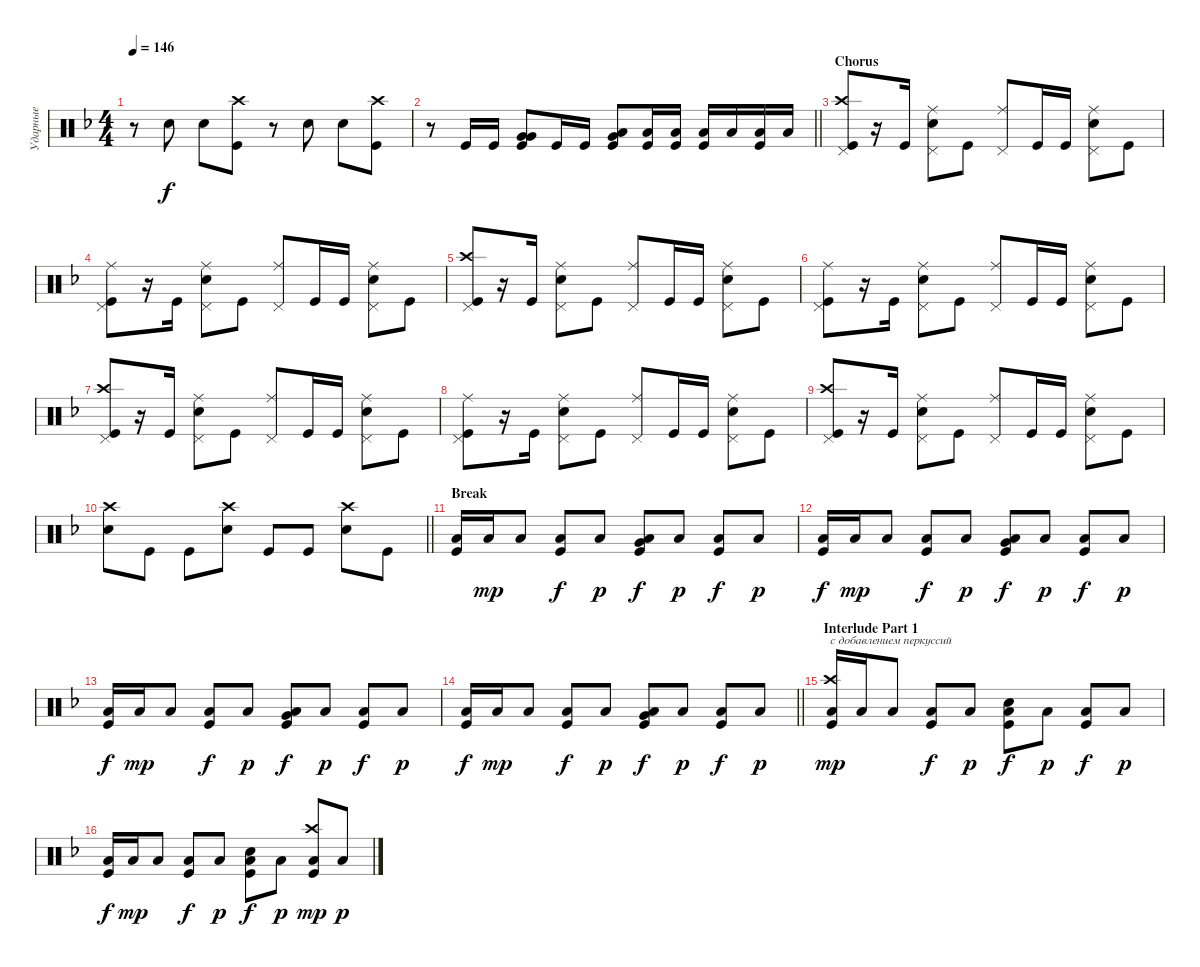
\track ("Ударные" "Ударные") {instrument percussion}
\staff {score}
\articulation defaults
\ts (4 4)
\tempo 146
\clef neutral
\ks dminor
r.8{dy f} "Snare (hit) 2".8 "Snare (hit) 2".8 ("Kick (hit)" "Crash high (hit)").8 r.8 "Snare (hit) 2".8 "Snare (hit) 2".8 ("Kick (hit)" "Crash high (hit)").8 |
\barLineRight lightlight
r.8 "Kick (hit)".16 "Kick (hit)".16 ("Kick (hit)" "Very Low Tom (hit)" "Very Low Tom (hit)").8{bd 120} "Kick (hit)".16 "Kick (hit)".16{bd 120} ("Kick (hit)" "Very Low Tom (hit)" "Low Floor Tom (hit)").8{bd 60} ("Kick (hit)" "Low Floor Tom (hit)").16 ("Kick (hit)" "Low Floor Tom (hit)").16{bd 120} ("Low Floor Tom (hit)" "Kick (hit)").16 "Low Floor Tom (hit)".16{bd 120} ("Kick (hit)" "Low Floor Tom (hit)").16{bd 120} "Low Floor Tom (hit)".16 |
\section ("" "Chorus")
("Kick (hit)" "Pedal Hi-Hat (hit)" "Crash high (hit)").8 r.16 "Kick (hit)".16 ("Ride (middle)" "Snare (hit) 2" "Pedal Hi-Hat (hit)").8 "Kick (hit)".8 ("Pedal Hi-Hat (hit)" "Ride (middle)").8 "Kick (hit)".16 "Kick (hit)".16 ("Snare (hit) 2" "Pedal Hi-Hat (hit)" "Ride (middle)").8 "Kick (hit)".8 |
("Kick (hit)" "Pedal Hi-Hat (hit)" "Ride (middle)").8 r.16 "Kick (hit)".16 ("Ride (middle)" "Snare (hit) 2" "Pedal Hi-Hat (hit)").8 "Kick (hit)".8 ("Pedal Hi-Hat (hit)" "Ride (middle)").8 "Kick (hit)".16 "Kick (hit)".16 ("Snare (hit) 2" "Pedal Hi-Hat (hit)" "Ride (middle)").8 "Kick (hit)".8 |
("Kick (hit)" "Pedal Hi-Hat (hit)" "Crash high (hit)").8 r.16 "Kick (hit)".16 ("Ride (middle)" "Snare (hit) 2" "Pedal Hi-Hat (hit)").8 "Kick (hit)".8 ("Pedal Hi-Hat (hit)" "Ride (middle)").8 "Kick (hit)".16 "Kick (hit)".16 ("Snare (hit) 2" "Pedal Hi-Hat (hit)" "Ride (middle)").8 "Kick (hit)".8 |
("Kick (hit)" "Pedal Hi-Hat (hit)" "Ride (middle)").8 r.16 "Kick (hit)".16 ("Ride (middle)" "Snare (hit) 2" "Pedal Hi-Hat (hit)").8 "Kick (hit)".8 ("Pedal Hi-Hat (hit)" "Ride (middle)").8 "Kick (hit)".16 "Kick (hit)".16 ("Snare (hit) 2" "Pedal Hi-Hat (hit)" "Ride (middle)").8 "Kick (hit)".8 |
("Kick (hit)" "Pedal Hi-Hat (hit)" "Crash high (hit)").8 r.16 "Kick (hit)".16 ("Ride (middle)" "Snare (hit) 2" "Pedal Hi-Hat (hit)").8 "Kick (hit)".8 ("Pedal Hi-Hat (hit)" "Ride (middle)").8 "Kick (hit)".16 "Kick (hit)".16 ("Snare (hit) 2" "Pedal Hi-Hat (hit)" "Ride (middle)").8 "Kick (hit)".8 |
("Kick (hit)" "Pedal Hi-Hat (hit)" "Ride (middle)").8 r.16 "Kick (hit)".16 ("Ride (middle)" "Snare (hit) 2" "Pedal Hi-Hat (hit)").8 "Kick (hit)".8 ("Pedal Hi-Hat (hit)" "Ride (middle)").8 "Kick (hit)".16 "Kick (hit)".16 ("Snare (hit) 2" "Pedal Hi-Hat (hit)" "Ride (middle)").8 "Kick (hit)".8 |
("Kick (hit)" "Pedal Hi-Hat (hit)" "Crash high (hit)").8 r.16 "Kick (hit)".16 ("Ride (middle)" "Snare (hit) 2" "Pedal Hi-Hat (hit)").8 "Kick (hit)".8 ("Pedal Hi-Hat (hit)" "Ride (middle)").8 "Kick (hit)".16 "Kick (hit)".16 ("Snare (hit) 2" "Pedal Hi-Hat (hit)" "Ride (middle)").8 "Kick (hit)".8 |
\barLineRight lightlight
("Snare (hit) 2" "Crash high (hit)").8 "Kick (hit)".8 "Kick (hit)".8 ("Snare (hit) 2" "Crash high (hit)").8 "Kick (hit)".8 "Kick (hit)".8 ("Snare (hit) 2" "Crash high (hit)").8 "Kick (hit)".8 |
\section ("" "Break")
("Kick (hit)" "Low Floor Tom (hit)").16 "Low Floor Tom (hit)".16{dy mp} "Low Floor Tom (hit)".8 ("Kick (hit)" "Low Floor Tom (hit)").8{bd 120 dy f} "Low Floor Tom (hit)".8{dy p} ("Kick (hit)" "Low Floor Tom (hit)" "Very Low Tom (hit)").8{bd 120 dy f} "Low Floor Tom (hit)".8{dy p} ("Kick (hit)" "Low Floor Tom (hit)").8{dy f} "Low Floor Tom (hit)".8{dy p} |
("Kick (hit)" "Low Floor Tom (hit)").16{dy f} "Low Floor Tom (hit)".16{dy mp} "Low Floor Tom (hit)".8 ("Kick (hit)" "Low Floor Tom (hit)").8{bd 120 dy f} "Low Floor Tom (hit)".8{dy p} ("Kick (hit)" "Low Floor Tom (hit)" "Very Low Tom (hit)").8{bd 120 dy f} "Low Floor Tom (hit)".8{dy p} ("Kick (hit)" "Low Floor Tom (hit)").8{dy f} "Low Floor Tom (hit)".8{dy p} |
("Kick (hit)" "Low Floor Tom (hit)").16{dy f} "Low Floor Tom (hit)".16{dy mp} "Low Floor Tom (hit)".8 ("Kick (hit)" "Low Floor Tom (hit)").8{bd 120 dy f} "Low Floor Tom (hit)".8{dy p} ("Kick (hit)" "Low Floor Tom (hit)" "Very Low Tom (hit)").8{bd 120 dy f} "Low Floor Tom (hit)".8{dy p} ("Kick (hit)" "Low Floor Tom (hit)").8{dy f} "Low Floor Tom (hit)".8{dy p} |
\barLineRight lightlight
("Kick (hit)" "Low Floor Tom (hit)").16{dy f} "Low Floor Tom (hit)".16{dy mp} "Low Floor Tom (hit)".8 ("Kick (hit)" "Low Floor Tom (hit)").8{bd 120 dy f} "Low Floor Tom (hit)".8{dy p} ("Kick (hit)" "Low Floor Tom (hit)" "Very Low Tom (hit)").8{bd 120 dy f} "Low Floor Tom (hit)".8{dy p} ("Kick (hit)" "Low Floor Tom (hit)").8{dy f} "Low Floor Tom (hit)".8{dy p} |
\section ("" "Interlude Part 1")
("Kick (hit)" "Low Floor Tom (hit)" "Crash high (hit)").16{txt "с добавлением перкуссий" dy mp} "Low Floor Tom (hit)".16 "Low Floor Tom (hit)".8 ("Kick (hit)" "Low Floor Tom (hit)").8{bd 120 dy f} "Low Floor Tom (hit)".8{dy p} ("Kick (hit)" "Low Floor Tom (hit)" "Snare (hit) 2").8{bd 120 dy f} "Low Floor Tom (hit)".8{dy p} ("Kick (hit)" "Low Floor Tom (hit)").8{dy f} "Low Floor Tom (hit)".8{dy p} |
("Kick (hit)" "Low Floor Tom (hit)").16{dy f} "Low Floor Tom (hit)".16{dy mp} "Low Floor Tom (hit)".8 ("Kick (hit)" "Low Floor Tom (hit)").8{bd 120 dy f} "Low Floor Tom (hit)".8{dy p} ("Kick (hit)" "Low Floor Tom (hit)" "Snare (hit) 2").8{bd 120 dy f} "Low Floor Tom (hit)".8{dy p} ("Kick (hit)" "Low Floor Tom (hit)" "Crash high (hit)").8{dy mp} "Low Floor Tom (hit)".8{dy p}
